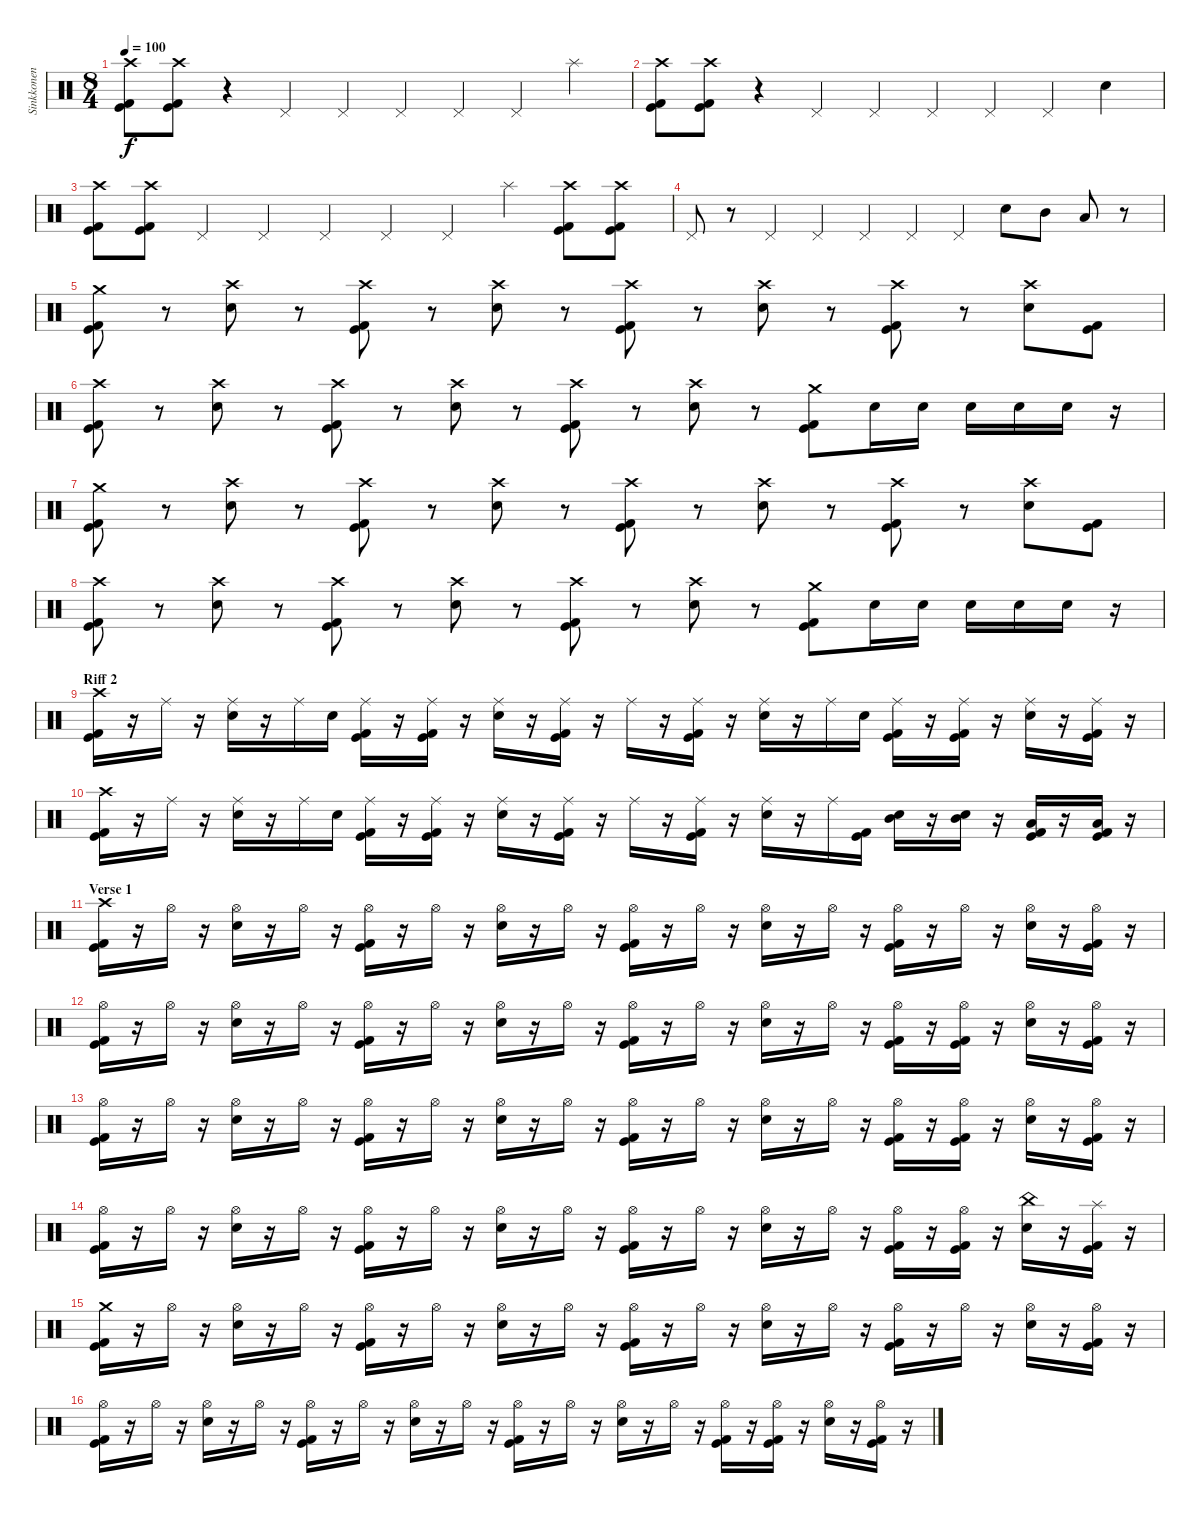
\track ("Sinkkonen" "Sinkkonen") {instrument percussion}
\staff {score}
\articulation defaults
\ts (8 4)
\tempo 100
\clef neutral
\ks c
("Crash high (hit)" "Kick (hit)" "Kick (hit) 2").8{dy f} ("Crash high (hit)" "Kick (hit)" "Kick (hit) 2").8 r.4 "Pedal Hi-Hat (hit)".4 "Pedal Hi-Hat (hit)".4 "Pedal Hi-Hat (hit)".4 "Pedal Hi-Hat (hit)".4 "Pedal Hi-Hat (hit)".4 "Splash (hit)".4 |
("Crash high (hit)" "Kick (hit)" "Kick (hit) 2").8 ("Crash high (hit)" "Kick (hit)" "Kick (hit) 2").8 r.4 "Pedal Hi-Hat (hit)".4 "Pedal Hi-Hat (hit)".4 "Pedal Hi-Hat (hit)".4 "Pedal Hi-Hat (hit)".4 "Pedal Hi-Hat (hit)".4 "Electric Snare (hit)".4 |
("Crash high (hit)" "Kick (hit)" "Kick (hit) 2").8 ("Crash high (hit)" "Kick (hit)" "Kick (hit) 2").8 "Pedal Hi-Hat (hit)".4 "Pedal Hi-Hat (hit)".4 "Pedal Hi-Hat (hit)".4 "Pedal Hi-Hat (hit)".4 "Pedal Hi-Hat (hit)".4 "Splash (hit)".4 ("Crash high (hit)" "Kick (hit)" "Kick (hit) 2").8 ("Crash high (hit)" "Kick (hit)" "Kick (hit) 2").8 |
"Pedal Hi-Hat (hit)".8 r.8 "Pedal Hi-Hat (hit)".4 "Pedal Hi-Hat (hit)".4 "Pedal Hi-Hat (hit)".4 "Pedal Hi-Hat (hit)".4 "Pedal Hi-Hat (hit)".4 "Electric Snare (hit)".8 "Mid Tom (hit)".8 "Low Tom (hit)".8 r.8 |
("Crash medium (hit)" "Kick (hit) 2" "Kick (hit)").8 r.8 ("Crash high (hit)" "Electric Snare (hit)").8 r.8 ("Crash high (hit)" "Kick (hit) 2" "Kick (hit)").8 r.8 ("Crash high (hit)" "Electric Snare (hit)").8 r.8 ("Crash high (hit)" "Kick (hit) 2" "Kick (hit)").8 r.8 ("Crash high (hit)" "Electric Snare (hit)").8 r.8 ("Crash high (hit)" "Kick (hit) 2" "Kick (hit)").8 r.8 ("Crash high (hit)" "Electric Snare (hit)").8 ("Kick (hit) 2" "Kick (hit)").8 |
("Crash high (hit)" "Kick (hit) 2" "Kick (hit)").8 r.8 ("Crash high (hit)" "Electric Snare (hit)").8 r.8 ("Crash high (hit)" "Kick (hit) 2" "Kick (hit)").8 r.8 ("Crash high (hit)" "Electric Snare (hit)").8 r.8 ("Crash high (hit)" "Kick (hit) 2" "Kick (hit)").8 r.8 ("Crash high (hit)" "Electric Snare (hit)").8 r.8 ("Crash medium (hit)" "Kick (hit) 2" "Kick (hit)").8 "Electric Snare (hit)".16 "Electric Snare (hit)".16 "Electric Snare (hit)".16 "Electric Snare (hit)".16 "Electric Snare (hit)".16 r.16 |
("Crash medium (hit)" "Kick (hit) 2" "Kick (hit)").8 r.8 ("Crash high (hit)" "Electric Snare (hit)").8 r.8 ("Crash high (hit)" "Kick (hit) 2" "Kick (hit)").8 r.8 ("Crash high (hit)" "Electric Snare (hit)").8 r.8 ("Crash high (hit)" "Kick (hit) 2" "Kick (hit)").8 r.8 ("Crash high (hit)" "Electric Snare (hit)").8 r.8 ("Crash high (hit)" "Kick (hit) 2" "Kick (hit)").8 r.8 ("Crash high (hit)" "Electric Snare (hit)").8 ("Kick (hit) 2" "Kick (hit)").8 |
("Crash high (hit)" "Kick (hit) 2" "Kick (hit)").8 r.8 ("Crash high (hit)" "Electric Snare (hit)").8 r.8 ("Crash high (hit)" "Kick (hit) 2" "Kick (hit)").8 r.8 ("Crash high (hit)" "Electric Snare (hit)").8 r.8 ("Crash high (hit)" "Kick (hit) 2" "Kick (hit)").8 r.8 ("Crash high (hit)" "Electric Snare (hit)").8 r.8 ("Crash medium (hit)" "Kick (hit) 2" "Kick (hit)").8 "Electric Snare (hit)".16 "Electric Snare (hit)".16 "Electric Snare (hit)".16 "Electric Snare (hit)".16 "Electric Snare (hit)".16 r.16 |
\section ("" "Riff 2")
("Crash high (hit)" "Kick (hit) 2" "Kick (hit)").16 r.16 "Ride (middle)".16 r.16 ("Ride (middle)" "Electric Snare (hit)").16 r.16 "Ride (middle)".16 "Electric Snare (hit)".16 ("Ride (middle)" "Kick (hit) 2" "Kick (hit)").16 r.16 ("Ride (middle)" "Kick (hit) 2" "Kick (hit)").16 r.16 ("Ride (middle)" "Electric Snare (hit)").16 r.16 ("Ride (middle)" "Kick (hit) 2" "Kick (hit)").16 r.16 "Ride (middle)".16 r.16 ("Ride (middle)" "Kick (hit) 2" "Kick (hit)").16 r.16 ("Ride (middle)" "Electric Snare (hit)").16 r.16 "Ride (middle)".16 "Electric Snare (hit)".16 ("Ride (middle)" "Kick (hit) 2" "Kick (hit)").16 r.16 ("Ride (middle)" "Kick (hit) 2" "Kick (hit)").16 r.16 ("Ride (middle)" "Electric Snare (hit)").16 r.16 ("Ride (middle)" "Kick (hit) 2" "Kick (hit)").16 r.16 |
("Crash high (hit)" "Kick (hit) 2" "Kick (hit)").16 r.16 "Ride (middle)".16 r.16 ("Ride (middle)" "Electric Snare (hit)").16 r.16 "Ride (middle)".16 "Electric Snare (hit)".16 ("Ride (middle)" "Kick (hit) 2" "Kick (hit)").16 r.16 ("Ride (middle)" "Kick (hit) 2" "Kick (hit)").16 r.16 ("Ride (middle)" "Electric Snare (hit)").16 r.16 ("Ride (middle)" "Kick (hit) 2" "Kick (hit)").16 r.16 "Ride (middle)".16 r.16 ("Ride (middle)" "Kick (hit) 2" "Kick (hit)").16 r.16 ("Ride (middle)" "Electric Snare (hit)").16 r.16 "Ride (middle)".16 ("Kick (hit) 2" "Kick (hit)").16 ("Mid Tom (hit)" "Electric Snare (hit)").16 r.16 ("Mid Tom (hit)" "Electric Snare (hit)").16 r.16 ("Low Tom (hit)" "Kick (hit) 2" "Kick (hit)").16 r.16 ("Low Tom (hit)" "Kick (hit) 2" "Kick (hit)").16 r.16 |
\section ("" "Verse 1")
("Crash high (hit)" "Kick (hit) 2" "Kick (hit)").16 r.16 "Hi-Hat (open)".16 r.16 ("Hi-Hat (open)" "Electric Snare (hit)").16 r.16 "Hi-Hat (open)".16 r.16 ("Hi-Hat (open)" "Kick (hit) 2" "Kick (hit)").16 r.16 "Hi-Hat (open)".16 r.16 ("Hi-Hat (open)" "Electric Snare (hit)").16 r.16 "Hi-Hat (open)".16 r.16 ("Hi-Hat (open)" "Kick (hit) 2" "Kick (hit)").16 r.16 "Hi-Hat (open)".16 r.16 ("Hi-Hat (open)" "Electric Snare (hit)").16 r.16 "Hi-Hat (open)".16 r.16 ("Hi-Hat (open)" "Kick (hit) 2" "Kick (hit)").16 r.16 "Hi-Hat (open)".16 r.16 ("Hi-Hat (open)" "Electric Snare (hit)").16 r.16 ("Hi-Hat (open)" "Kick (hit) 2" "Kick (hit)").16 r.16 |
("Hi-Hat (open)" "Kick (hit) 2" "Kick (hit)").16 r.16 "Hi-Hat (open)".16 r.16 ("Hi-Hat (open)" "Electric Snare (hit)").16 r.16 "Hi-Hat (open)".16 r.16 ("Hi-Hat (open)" "Kick (hit) 2" "Kick (hit)").16 r.16 "Hi-Hat (open)".16 r.16 ("Hi-Hat (open)" "Electric Snare (hit)").16 r.16 "Hi-Hat (open)".16 r.16 ("Hi-Hat (open)" "Kick (hit) 2" "Kick (hit)").16 r.16 "Hi-Hat (open)".16 r.16 ("Hi-Hat (open)" "Electric Snare (hit)").16 r.16 "Hi-Hat (open)".16 r.16 ("Hi-Hat (open)" "Kick (hit) 2" "Kick (hit)").16 r.16 ("Hi-Hat (open)" "Kick (hit) 2" "Kick (hit)").16 r.16 ("Hi-Hat (open)" "Electric Snare (hit)").16 r.16 ("Hi-Hat (open)" "Kick (hit) 2" "Kick (hit)").16 r.16 |
("Hi-Hat (open)" "Kick (hit) 2" "Kick (hit)").16 r.16 "Hi-Hat (open)".16 r.16 ("Hi-Hat (open)" "Electric Snare (hit)").16 r.16 "Hi-Hat (open)".16 r.16 ("Hi-Hat (open)" "Kick (hit) 2" "Kick (hit)").16 r.16 "Hi-Hat (open)".16 r.16 ("Hi-Hat (open)" "Electric Snare (hit)").16 r.16 "Hi-Hat (open)".16 r.16 ("Hi-Hat (open)" "Kick (hit) 2" "Kick (hit)").16 r.16 "Hi-Hat (open)".16 r.16 ("Hi-Hat (open)" "Electric Snare (hit)").16 r.16 "Hi-Hat (open)".16 r.16 ("Hi-Hat (open)" "Kick (hit) 2" "Kick (hit)").16 r.16 ("Hi-Hat (open)" "Kick (hit) 2" "Kick (hit)").16 r.16 ("Hi-Hat (open)" "Electric Snare (hit)").16 r.16 ("Hi-Hat (open)" "Kick (hit) 2" "Kick (hit)").16 r.16 |
("Hi-Hat (open)" "Kick (hit) 2" "Kick (hit)").16 r.16 "Hi-Hat (open)".16 r.16 ("Hi-Hat (open)" "Electric Snare (hit)").16 r.16 "Hi-Hat (open)".16 r.16 ("Hi-Hat (open)" "Kick (hit) 2" "Kick (hit)").16 r.16 "Hi-Hat (open)".16 r.16 ("Hi-Hat (open)" "Electric Snare (hit)").16 r.16 "Hi-Hat (open)".16 r.16 ("Hi-Hat (open)" "Kick (hit) 2" "Kick (hit)").16 r.16 "Hi-Hat (open)".16 r.16 ("Hi-Hat (open)" "Electric Snare (hit)").16 r.16 "Hi-Hat (open)".16 r.16 ("Hi-Hat (open)" "Kick (hit) 2" "Kick (hit)").16 r.16 ("Hi-Hat (open)" "Kick (hit) 2" "Kick (hit)").16 r.16 ("China (hit)" "Electric Snare (hit)").16 r.16 ("Splash (hit)" "Kick (hit) 2" "Kick (hit)").16 r.16 |
("Crash medium (hit)" "Kick (hit) 2" "Kick (hit)").16 r.16 "Hi-Hat (open)".16 r.16 ("Hi-Hat (open)" "Electric Snare (hit)").16 r.16 "Hi-Hat (open)".16 r.16 ("Hi-Hat (open)" "Kick (hit) 2" "Kick (hit)").16 r.16 "Hi-Hat (open)".16 r.16 ("Hi-Hat (open)" "Electric Snare (hit)").16 r.16 "Hi-Hat (open)".16 r.16 ("Hi-Hat (open)" "Kick (hit) 2" "Kick (hit)").16 r.16 "Hi-Hat (open)".16 r.16 ("Hi-Hat (open)" "Electric Snare (hit)").16 r.16 "Hi-Hat (open)".16 r.16 ("Hi-Hat (open)" "Kick (hit) 2" "Kick (hit)").16 r.16 "Hi-Hat (open)".16 r.16 ("Hi-Hat (open)" "Electric Snare (hit)").16 r.16 ("Hi-Hat (open)" "Kick (hit) 2" "Kick (hit)").16 r.16 |
("Hi-Hat (open)" "Kick (hit) 2" "Kick (hit)").16 r.16 "Hi-Hat (open)".16 r.16 ("Hi-Hat (open)" "Electric Snare (hit)").16 r.16 "Hi-Hat (open)".16 r.16 ("Hi-Hat (open)" "Kick (hit) 2" "Kick (hit)").16 r.16 "Hi-Hat (open)".16 r.16 ("Hi-Hat (open)" "Electric Snare (hit)").16 r.16 "Hi-Hat (open)".16 r.16 ("Hi-Hat (open)" "Kick (hit) 2" "Kick (hit)").16 r.16 "Hi-Hat (open)".16 r.16 ("Hi-Hat (open)" "Electric Snare (hit)").16 r.16 "Hi-Hat (open)".16 r.16 ("Hi-Hat (open)" "Kick (hit) 2" "Kick (hit)").16 r.16 ("Hi-Hat (open)" "Kick (hit) 2" "Kick (hit)").16 r.16 ("Hi-Hat (open)" "Electric Snare (hit)").16 r.16 ("Hi-Hat (open)" "Kick (hit) 2" "Kick (hit)").16 r.16
